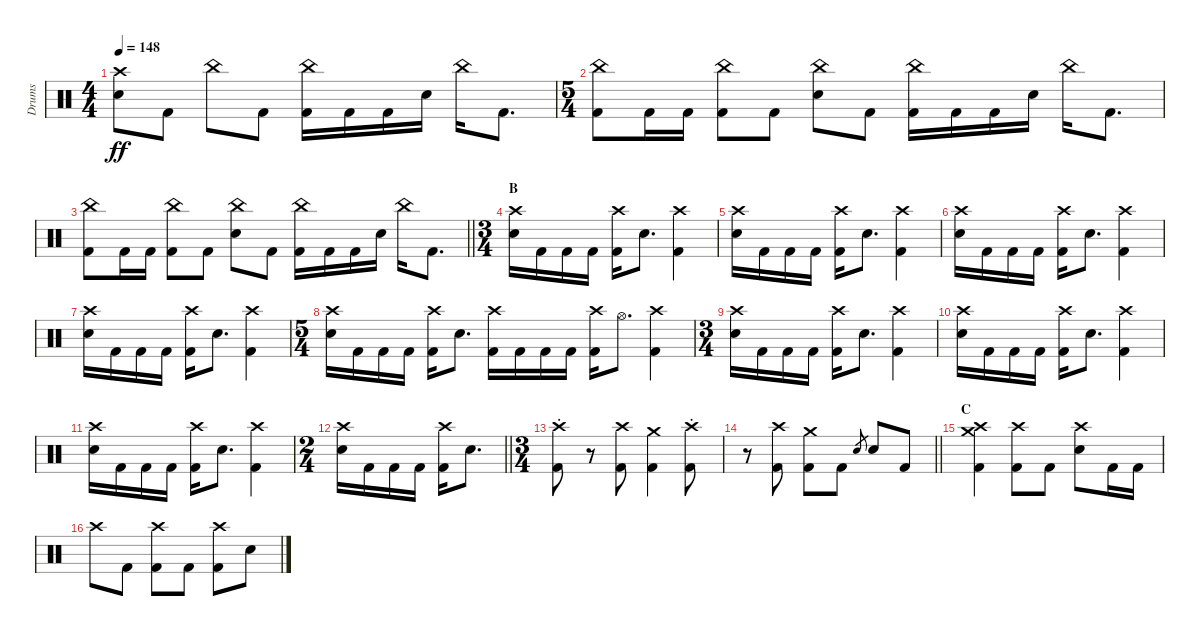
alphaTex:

\track ("Drums" "Drums") {instrument percussion}
\staff {score}
\articulation defaults
\ts (4 4)
\tempo 148
\clef neutral
\ks c
("Crash high (hit)" "Electric Snare (hit)").8{dy ff} "Kick (hit) 2".8 "China (hit)".8 "Kick (hit) 2".8 ("China (hit)" "Kick (hit) 2").16 "Kick (hit) 2".16 "Kick (hit) 2".16 "Electric Snare (hit)".16 "China (hit)".16 "Kick (hit) 2".8{d} |
\ts (5 4)
("China (hit)" "Kick (hit) 2").8 "Kick (hit) 2".16 "Kick (hit) 2".16 ("China (hit)" "Kick (hit) 2").8 "Kick (hit) 2".8 ("China (hit)" "Electric Snare (hit)").8 "Kick (hit) 2".8 ("China (hit)" "Kick (hit) 2").16 "Kick (hit) 2".16 "Kick (hit) 2".16 "Electric Snare (hit)".16 "China (hit)".16 "Kick (hit) 2".8{d} |
\barLineRight lightlight
("China (hit)" "Kick (hit) 2").8 "Kick (hit) 2".16 "Kick (hit) 2".16 ("China (hit)" "Kick (hit) 2").8 "Kick (hit) 2".8 ("China (hit)" "Electric Snare (hit)").8 "Kick (hit) 2".8 ("China (hit)" "Kick (hit) 2").16 "Kick (hit) 2".16 "Kick (hit) 2".16 "Electric Snare (hit)".16 "China (hit)".16 "Kick (hit) 2".8{d} |
\ts (3 4)
\section ("" "B")
("Crash high (hit)" "Electric Snare (hit)").16 "Kick (hit) 2".16 "Kick (hit) 2".16 "Kick (hit) 2".16 ("Crash high (hit)" "Kick (hit) 2").16 "Electric Snare (hit)".8{d} ("Crash high (hit)" "Kick (hit) 2").4 |
("Crash high (hit)" "Electric Snare (hit)").16 "Kick (hit) 2".16 "Kick (hit) 2".16 "Kick (hit) 2".16 ("Crash high (hit)" "Kick (hit) 2").16 "Electric Snare (hit)".8{d} ("Crash high (hit)" "Kick (hit) 2").4 |
("Crash high (hit)" "Electric Snare (hit)").16 "Kick (hit) 2".16 "Kick (hit) 2".16 "Kick (hit) 2".16 ("Crash high (hit)" "Kick (hit) 2").16 "Electric Snare (hit)".8{d} ("Crash high (hit)" "Kick (hit) 2").4 |
("Crash high (hit)" "Electric Snare (hit)").16 "Kick (hit) 2".16 "Kick (hit) 2".16 "Kick (hit) 2".16 ("Crash high (hit)" "Kick (hit) 2").16 "Electric Snare (hit)".8{d} ("Crash high (hit)" "Kick (hit) 2").4 |
\ts (5 4)
("Crash high (hit)" "Electric Snare (hit)").16 "Kick (hit) 2".16 "Kick (hit) 2".16 "Kick (hit) 2".16 ("Crash high (hit)" "Kick (hit) 2").16 "Electric Snare (hit)".8{d} ("Crash high (hit)" "Kick (hit) 2").16 "Kick (hit) 2".16 "Kick (hit) 2".16 "Kick (hit) 2".16 ("Crash high (hit)" "Kick (hit) 2").16 "Hi-Hat (open)".8{d} ("Crash high (hit)" "Kick (hit) 2").4 |
\ts (3 4)
("Crash high (hit)" "Electric Snare (hit)").16 "Kick (hit) 2".16 "Kick (hit) 2".16 "Kick (hit) 2".16 ("Crash high (hit)" "Kick (hit) 2").16 "Electric Snare (hit)".8{d} ("Crash high (hit)" "Kick (hit) 2").4 |
("Crash high (hit)" "Electric Snare (hit)").16 "Kick (hit) 2".16 "Kick (hit) 2".16 "Kick (hit) 2".16 ("Crash high (hit)" "Kick (hit) 2").16 "Electric Snare (hit)".8{d} ("Crash high (hit)" "Kick (hit) 2").4 |
("Crash high (hit)" "Electric Snare (hit)").16 "Kick (hit) 2".16 "Kick (hit) 2".16 "Kick (hit) 2".16 ("Crash high (hit)" "Kick (hit) 2").16 "Electric Snare (hit)".8{d} ("Crash high (hit)" "Kick (hit) 2").4 |
\ts (2 4)
\barLineRight lightlight
("Crash high (hit)" "Electric Snare (hit)").16 "Kick (hit) 2".16 "Kick (hit) 2".16 "Kick (hit) 2".16 ("Crash high (hit)" "Kick (hit) 2").16 "Electric Snare (hit)".8{d} |
\ts (3 4)
\section ("" "")
("Crash high (hit)"{st} "Kick (hit) 2").8 r.8{volume 0} ("Crash high (hit)" "Kick (hit) 2").8{volume 14} ("Crash medium (hit)" "Kick (hit) 2").4 ("Crash high (hit)"{st} "Kick (hit) 2").8 |
\barLineRight lightlight
r.8{volume 0} ("Crash high (hit)" "Kick (hit) 2").8{volume 14} ("Crash medium (hit)" "Kick (hit) 2").8 "Kick (hit) 2".8 "Electric Snare (hit)".8{gr} "Electric Snare (hit)".8 "Kick (hit) 2".8 |
\section ("" "C")
("Crash medium (hit)" "Crash high (hit)" "Kick (hit) 2").4 ("Crash high (hit)" "Kick (hit) 2").8 "Kick (hit) 2".8 ("Crash high (hit)" "Electric Snare (hit)").8 "Kick (hit) 2".16 "Kick (hit) 2".16 |
"Crash high (hit)".8 "Kick (hit) 2".8 ("Crash high (hit)" "Kick (hit) 2").8 "Kick (hit) 2".8 ("Crash high (hit)" "Kick (hit) 2").8 "Electric Snare (hit)".8
